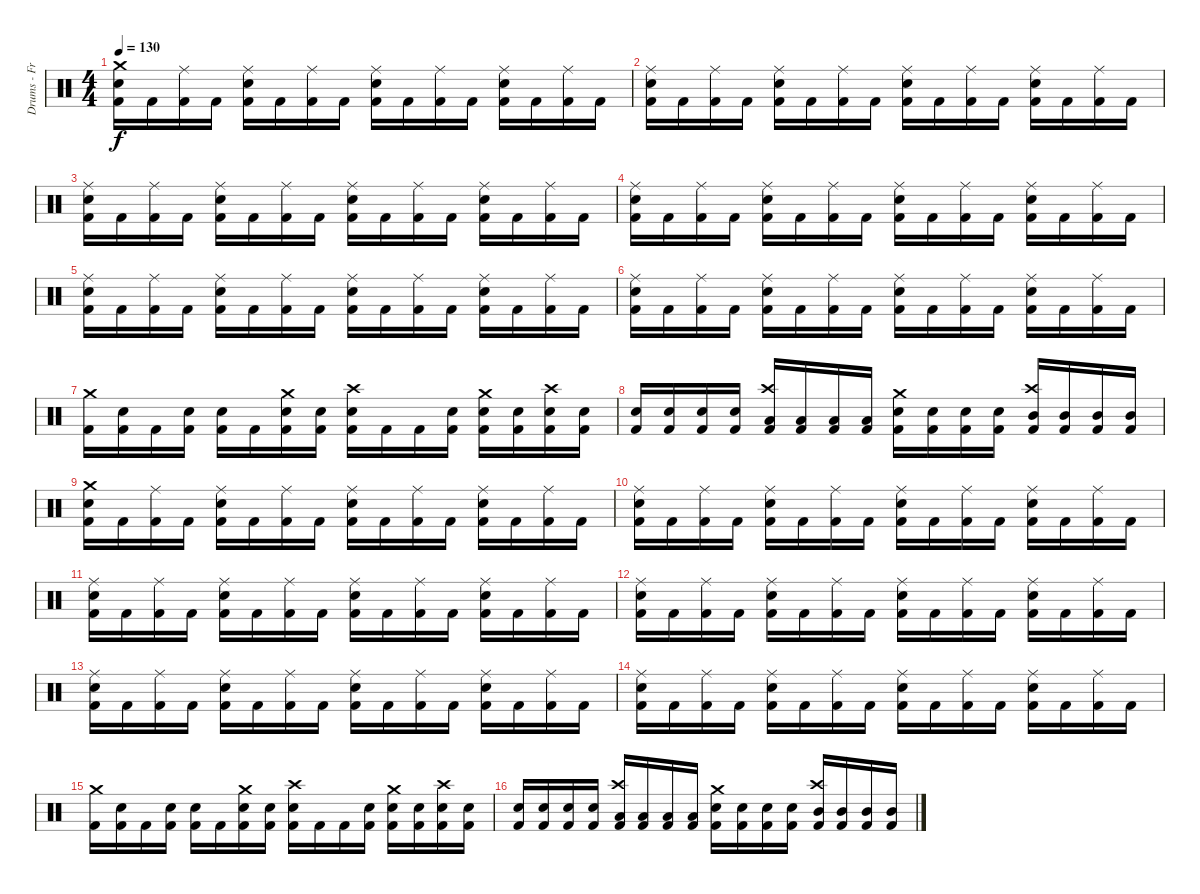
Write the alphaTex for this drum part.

\track ("Drums - Fredrik Andersson" "Drums - Fr") {instrument percussion}
\staff {score}
\articulation defaults
\ts (4 4)
\tempo 130
\clef neutral
\ks c
("Kick (hit) 2" "Snare (hit) 2" "Crash medium (hit)").16{dy f} "Kick (hit) 2".16 ("Kick (hit) 2" "Ride (middle)").16 "Kick (hit) 2".16 ("Kick (hit) 2" "Snare (hit) 2" "Ride (middle)").16 "Kick (hit) 2".16 ("Kick (hit) 2" "Ride (middle)").16 "Kick (hit) 2".16 ("Kick (hit) 2" "Snare (hit) 2" "Ride (middle)").16 "Kick (hit) 2".16 ("Kick (hit) 2" "Ride (middle)").16 "Kick (hit) 2".16 ("Kick (hit) 2" "Snare (hit) 2" "Ride (middle)").16 "Kick (hit) 2".16 ("Kick (hit) 2" "Ride (middle)").16 "Kick (hit) 2".16 |
("Kick (hit) 2" "Snare (hit) 2" "Ride (middle)").16 "Kick (hit) 2".16 ("Kick (hit) 2" "Ride (middle)").16 "Kick (hit) 2".16 ("Kick (hit) 2" "Snare (hit) 2" "Ride (middle)").16 "Kick (hit) 2".16 ("Kick (hit) 2" "Ride (middle)").16 "Kick (hit) 2".16 ("Kick (hit) 2" "Snare (hit) 2" "Ride (middle)").16 "Kick (hit) 2".16 ("Kick (hit) 2" "Ride (middle)").16 "Kick (hit) 2".16 ("Kick (hit) 2" "Snare (hit) 2" "Ride (middle)").16 "Kick (hit) 2".16 ("Kick (hit) 2" "Ride (middle)").16 "Kick (hit) 2".16 |
("Kick (hit) 2" "Snare (hit) 2" "Ride (middle)").16 "Kick (hit) 2".16 ("Kick (hit) 2" "Ride (middle)").16 "Kick (hit) 2".16 ("Kick (hit) 2" "Snare (hit) 2" "Ride (middle)").16 "Kick (hit) 2".16 ("Kick (hit) 2" "Ride (middle)").16 "Kick (hit) 2".16 ("Kick (hit) 2" "Snare (hit) 2" "Ride (middle)").16 "Kick (hit) 2".16 ("Kick (hit) 2" "Ride (middle)").16 "Kick (hit) 2".16 ("Kick (hit) 2" "Snare (hit) 2" "Ride (middle)").16 "Kick (hit) 2".16 ("Kick (hit) 2" "Ride (middle)").16 "Kick (hit) 2".16 |
("Kick (hit) 2" "Snare (hit) 2" "Ride (middle)").16 "Kick (hit) 2".16 ("Kick (hit) 2" "Ride (middle)").16 "Kick (hit) 2".16 ("Kick (hit) 2" "Snare (hit) 2" "Ride (middle)").16 "Kick (hit) 2".16 ("Kick (hit) 2" "Ride (middle)").16 "Kick (hit) 2".16 ("Kick (hit) 2" "Snare (hit) 2" "Ride (middle)").16 "Kick (hit) 2".16 ("Kick (hit) 2" "Ride (middle)").16 "Kick (hit) 2".16 ("Kick (hit) 2" "Snare (hit) 2" "Ride (middle)").16 "Kick (hit) 2".16 ("Kick (hit) 2" "Ride (middle)").16 "Kick (hit) 2".16 |
("Kick (hit) 2" "Snare (hit) 2" "Ride (middle)").16 "Kick (hit) 2".16 ("Kick (hit) 2" "Ride (middle)").16 "Kick (hit) 2".16 ("Kick (hit) 2" "Snare (hit) 2" "Ride (middle)").16 "Kick (hit) 2".16 ("Kick (hit) 2" "Ride (middle)").16 "Kick (hit) 2".16 ("Kick (hit) 2" "Snare (hit) 2" "Ride (middle)").16 "Kick (hit) 2".16 ("Kick (hit) 2" "Ride (middle)").16 "Kick (hit) 2".16 ("Kick (hit) 2" "Snare (hit) 2" "Ride (middle)").16 "Kick (hit) 2".16 ("Kick (hit) 2" "Ride (middle)").16 "Kick (hit) 2".16 |
("Kick (hit) 2" "Snare (hit) 2" "Ride (middle)").16 "Kick (hit) 2".16 ("Kick (hit) 2" "Ride (middle)").16 "Kick (hit) 2".16 ("Kick (hit) 2" "Snare (hit) 2" "Ride (middle)").16 "Kick (hit) 2".16 ("Kick (hit) 2" "Ride (middle)").16 "Kick (hit) 2".16 ("Kick (hit) 2" "Snare (hit) 2" "Ride (middle)").16 "Kick (hit) 2".16 ("Kick (hit) 2" "Ride (middle)").16 "Kick (hit) 2".16 ("Kick (hit) 2" "Snare (hit) 2" "Ride (middle)").16 "Kick (hit) 2".16 ("Kick (hit) 2" "Ride (middle)").16 "Kick (hit) 2".16 |
("Kick (hit) 2" "Crash medium (hit)").16 ("Kick (hit) 2" "Snare (hit) 2").16 "Kick (hit) 2".16 ("Kick (hit) 2" "Snare (hit) 2").16 ("Kick (hit) 2" "Snare (hit) 2").16 "Kick (hit) 2".16 ("Kick (hit) 2" "Snare (hit) 2" "Crash medium (hit)").16 ("Kick (hit) 2" "Snare (hit) 2").16 ("Kick (hit) 2" "Snare (hit) 2" "Crash high (hit)").16 "Kick (hit) 2".16 "Kick (hit) 2".16 ("Kick (hit) 2" "Snare (hit) 2").16 ("Kick (hit) 2" "Snare (hit) 2" "Crash medium (hit)").16 ("Kick (hit) 2" "Snare (hit) 2").16 ("Kick (hit) 2" "Snare (hit) 2" "Crash high (hit)").16 ("Kick (hit) 2" "Snare (hit) 2").16 |
("Kick (hit) 2" "Snare (hit) 2").16 ("Kick (hit) 2" "Snare (hit) 2").16 ("Kick (hit) 2" "Snare (hit) 2").16 ("Kick (hit) 2" "Snare (hit) 2").16 ("Kick (hit) 2" "Low Tom (hit)" "Crash high (hit)").16 ("Kick (hit) 2" "Low Tom (hit)").16 ("Kick (hit) 2" "Low Tom (hit)").16 ("Kick (hit) 2" "Low Tom (hit)").16 ("Kick (hit) 2" "Snare (hit) 2" "Crash medium (hit)").16 ("Kick (hit) 2" "Snare (hit) 2").16 ("Kick (hit) 2" "Snare (hit) 2").16 ("Kick (hit) 2" "Snare (hit) 2").16 ("Kick (hit) 2" "Mid Tom (hit)" "Crash high (hit)").16 ("Kick (hit) 2" "Mid Tom (hit)").16 ("Kick (hit) 2" "Mid Tom (hit)").16 ("Kick (hit) 2" "Mid Tom (hit)").16 |
("Kick (hit) 2" "Snare (hit) 2" "Crash medium (hit)").16 "Kick (hit) 2".16 ("Kick (hit) 2" "Ride (middle)").16 "Kick (hit) 2".16 ("Kick (hit) 2" "Snare (hit) 2" "Ride (middle)").16 "Kick (hit) 2".16 ("Kick (hit) 2" "Ride (middle)").16 "Kick (hit) 2".16 ("Kick (hit) 2" "Snare (hit) 2" "Ride (middle)").16 "Kick (hit) 2".16 ("Kick (hit) 2" "Ride (middle)").16 "Kick (hit) 2".16 ("Kick (hit) 2" "Snare (hit) 2" "Ride (middle)").16 "Kick (hit) 2".16 ("Kick (hit) 2" "Ride (middle)").16 "Kick (hit) 2".16 |
("Kick (hit) 2" "Snare (hit) 2" "Ride (middle)").16 "Kick (hit) 2".16 ("Kick (hit) 2" "Ride (middle)").16 "Kick (hit) 2".16 ("Kick (hit) 2" "Snare (hit) 2" "Ride (middle)").16 "Kick (hit) 2".16 ("Kick (hit) 2" "Ride (middle)").16 "Kick (hit) 2".16 ("Kick (hit) 2" "Snare (hit) 2" "Ride (middle)").16 "Kick (hit) 2".16 ("Kick (hit) 2" "Ride (middle)").16 "Kick (hit) 2".16 ("Kick (hit) 2" "Snare (hit) 2" "Ride (middle)").16 "Kick (hit) 2".16 ("Kick (hit) 2" "Ride (middle)").16 "Kick (hit) 2".16 |
("Kick (hit) 2" "Snare (hit) 2" "Ride (middle)").16 "Kick (hit) 2".16 ("Kick (hit) 2" "Ride (middle)").16 "Kick (hit) 2".16 ("Kick (hit) 2" "Snare (hit) 2" "Ride (middle)").16 "Kick (hit) 2".16 ("Kick (hit) 2" "Ride (middle)").16 "Kick (hit) 2".16 ("Kick (hit) 2" "Snare (hit) 2" "Ride (middle)").16 "Kick (hit) 2".16 ("Kick (hit) 2" "Ride (middle)").16 "Kick (hit) 2".16 ("Kick (hit) 2" "Snare (hit) 2" "Ride (middle)").16 "Kick (hit) 2".16 ("Kick (hit) 2" "Ride (middle)").16 "Kick (hit) 2".16 |
("Kick (hit) 2" "Snare (hit) 2" "Ride (middle)").16 "Kick (hit) 2".16 ("Kick (hit) 2" "Ride (middle)").16 "Kick (hit) 2".16 ("Kick (hit) 2" "Snare (hit) 2" "Ride (middle)").16 "Kick (hit) 2".16 ("Kick (hit) 2" "Ride (middle)").16 "Kick (hit) 2".16 ("Kick (hit) 2" "Snare (hit) 2" "Ride (middle)").16 "Kick (hit) 2".16 ("Kick (hit) 2" "Ride (middle)").16 "Kick (hit) 2".16 ("Kick (hit) 2" "Snare (hit) 2" "Ride (middle)").16 "Kick (hit) 2".16 ("Kick (hit) 2" "Ride (middle)").16 "Kick (hit) 2".16 |
("Kick (hit) 2" "Snare (hit) 2" "Ride (middle)").16 "Kick (hit) 2".16 ("Kick (hit) 2" "Ride (middle)").16 "Kick (hit) 2".16 ("Kick (hit) 2" "Snare (hit) 2" "Ride (middle)").16 "Kick (hit) 2".16 ("Kick (hit) 2" "Ride (middle)").16 "Kick (hit) 2".16 ("Kick (hit) 2" "Snare (hit) 2" "Ride (middle)").16 "Kick (hit) 2".16 ("Kick (hit) 2" "Ride (middle)").16 "Kick (hit) 2".16 ("Kick (hit) 2" "Snare (hit) 2" "Ride (middle)").16 "Kick (hit) 2".16 ("Kick (hit) 2" "Ride (middle)").16 "Kick (hit) 2".16 |
("Kick (hit) 2" "Snare (hit) 2" "Ride (middle)").16 "Kick (hit) 2".16 ("Kick (hit) 2" "Ride (middle)").16 "Kick (hit) 2".16 ("Kick (hit) 2" "Snare (hit) 2" "Ride (middle)").16 "Kick (hit) 2".16 ("Kick (hit) 2" "Ride (middle)").16 "Kick (hit) 2".16 ("Kick (hit) 2" "Snare (hit) 2" "Ride (middle)").16 "Kick (hit) 2".16 ("Kick (hit) 2" "Ride (middle)").16 "Kick (hit) 2".16 ("Kick (hit) 2" "Snare (hit) 2" "Ride (middle)").16 "Kick (hit) 2".16 ("Kick (hit) 2" "Ride (middle)").16 "Kick (hit) 2".16 |
("Kick (hit) 2" "Crash medium (hit)").16 ("Kick (hit) 2" "Snare (hit) 2").16 "Kick (hit) 2".16 ("Kick (hit) 2" "Snare (hit) 2").16 ("Kick (hit) 2" "Snare (hit) 2").16 "Kick (hit) 2".16 ("Kick (hit) 2" "Snare (hit) 2" "Crash medium (hit)").16 ("Kick (hit) 2" "Snare (hit) 2").16 ("Kick (hit) 2" "Snare (hit) 2" "Crash high (hit)").16 "Kick (hit) 2".16 "Kick (hit) 2".16 ("Kick (hit) 2" "Snare (hit) 2").16 ("Kick (hit) 2" "Snare (hit) 2" "Crash medium (hit)").16 ("Kick (hit) 2" "Snare (hit) 2").16 ("Kick (hit) 2" "Snare (hit) 2" "Crash high (hit)").16 ("Kick (hit) 2" "Snare (hit) 2").16 |
("Kick (hit) 2" "Snare (hit) 2").16 ("Kick (hit) 2" "Snare (hit) 2").16 ("Kick (hit) 2" "Snare (hit) 2").16 ("Kick (hit) 2" "Snare (hit) 2").16 ("Kick (hit) 2" "Low Tom (hit)" "Crash high (hit)").16 ("Kick (hit) 2" "Low Tom (hit)").16 ("Kick (hit) 2" "Low Tom (hit)").16 ("Kick (hit) 2" "Low Tom (hit)").16 ("Kick (hit) 2" "Snare (hit) 2" "Crash medium (hit)").16 ("Kick (hit) 2" "Snare (hit) 2").16 ("Kick (hit) 2" "Snare (hit) 2").16 ("Kick (hit) 2" "Snare (hit) 2").16 ("Kick (hit) 2" "Mid Tom (hit)" "Crash high (hit)").16 ("Kick (hit) 2" "Mid Tom (hit)").16 ("Kick (hit) 2" "Mid Tom (hit)").16 ("Kick (hit) 2" "Mid Tom (hit)").16
